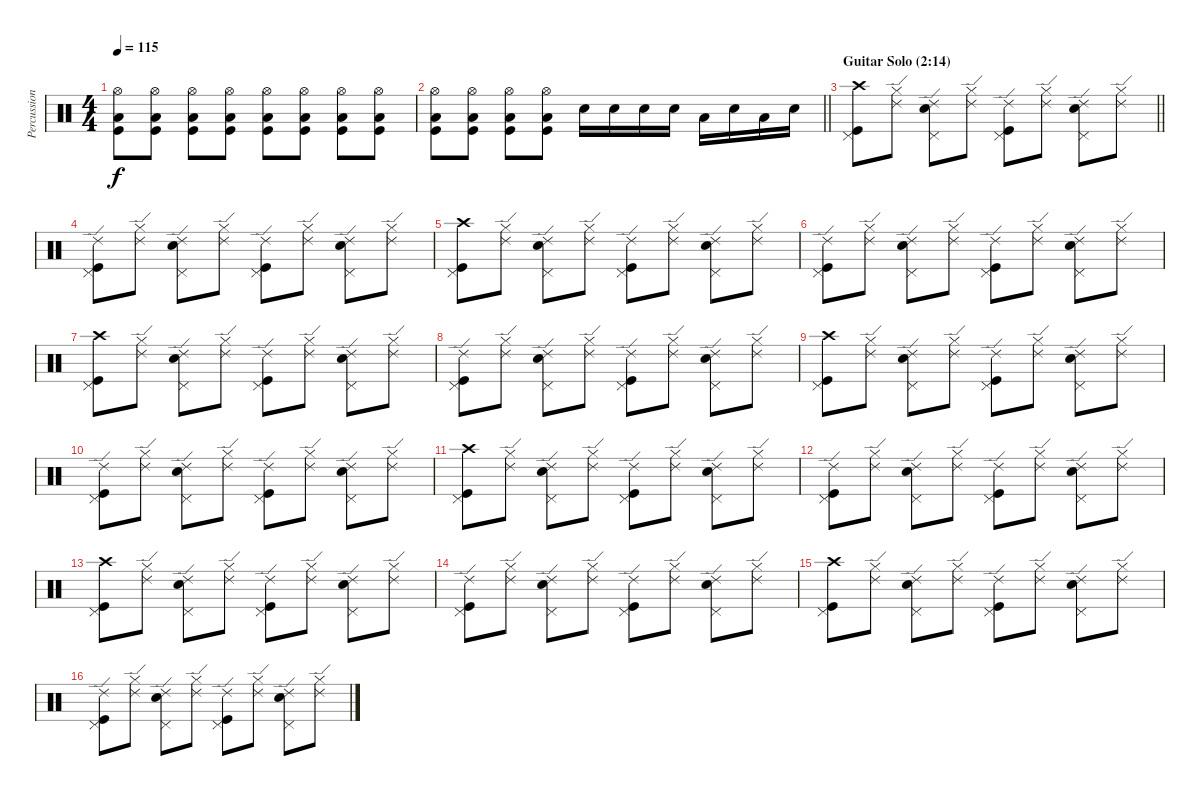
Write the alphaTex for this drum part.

\track ("Percussioni" "Percussion") {instrument percussion}
\staff {score}
\articulation defaults
\ts (4 4)
\tempo 115
\clef neutral
\ks c
("Hi-Hat (open)" "Low Tom (hit)" "Kick (hit)").8{dy f} ("Hi-Hat (open)" "Low Tom (hit)" "Kick (hit)").8 ("Hi-Hat (open)" "Low Tom (hit)" "Kick (hit)").8 ("Hi-Hat (open)" "Low Tom (hit)" "Kick (hit)").8 ("Hi-Hat (open)" "Low Tom (hit)" "Kick (hit)").8 ("Hi-Hat (open)" "Low Tom (hit)" "Kick (hit)").8 ("Hi-Hat (open)" "Low Tom (hit)" "Kick (hit)").8 ("Hi-Hat (open)" "Low Tom (hit)" "Kick (hit)").8 |
\barLineRight lightlight
("Hi-Hat (open)" "Low Tom (hit)" "Kick (hit)").8 ("Hi-Hat (open)" "Low Tom (hit)" "Kick (hit)").8 ("Hi-Hat (open)" "Low Tom (hit)" "Kick (hit)").8 ("Hi-Hat (open)" "Low Tom (hit)" "Kick (hit)").8 "Electric Snare (hit)".16 "Electric Snare (hit)".16 "Electric Snare (hit)".16 "Electric Snare (hit)".16 "Low Tom (hit)".16 "Electric Snare (hit)".16 "Low Tom (hit)".16 "Electric Snare (hit)".16 |
\section ("" "Guitar Solo (2:14)")
\barLineRight lightlight
("Crash high (hit)" "Pedal Hi-Hat (hit)" "Kick (hit)").8 ("Ride (edge) 2" "Hi-Hat (closed)").8 ("Ride (edge) 2" "Pedal Hi-Hat (hit)" "Electric Snare (hit)").8 ("Ride (edge) 2" "Hi-Hat (closed)").8 ("Ride (edge) 2" "Pedal Hi-Hat (hit)" "Kick (hit)").8 ("Ride (edge) 2" "Hi-Hat (closed)").8 ("Ride (edge) 2" "Pedal Hi-Hat (hit)" "Electric Snare (hit)").8 ("Ride (edge) 2" "Hi-Hat (closed)").8 |
("Ride (edge) 2" "Pedal Hi-Hat (hit)" "Kick (hit)").8 ("Ride (edge) 2" "Hi-Hat (closed)").8 ("Ride (edge) 2" "Pedal Hi-Hat (hit)" "Electric Snare (hit)").8 ("Ride (edge) 2" "Hi-Hat (closed)").8 ("Ride (edge) 2" "Pedal Hi-Hat (hit)" "Kick (hit)").8 ("Ride (edge) 2" "Hi-Hat (closed)").8 ("Ride (edge) 2" "Pedal Hi-Hat (hit)" "Electric Snare (hit)").8 ("Ride (edge) 2" "Hi-Hat (closed)").8 |
("Crash high (hit)" "Pedal Hi-Hat (hit)" "Kick (hit)").8 ("Ride (edge) 2" "Hi-Hat (closed)").8 ("Ride (edge) 2" "Pedal Hi-Hat (hit)" "Electric Snare (hit)").8 ("Ride (edge) 2" "Hi-Hat (closed)").8 ("Ride (edge) 2" "Pedal Hi-Hat (hit)" "Kick (hit)").8 ("Ride (edge) 2" "Hi-Hat (closed)").8 ("Ride (edge) 2" "Pedal Hi-Hat (hit)" "Electric Snare (hit)").8 ("Ride (edge) 2" "Hi-Hat (closed)").8 |
("Ride (edge) 2" "Pedal Hi-Hat (hit)" "Kick (hit)").8 ("Ride (edge) 2" "Hi-Hat (closed)").8 ("Ride (edge) 2" "Pedal Hi-Hat (hit)" "Electric Snare (hit)").8 ("Ride (edge) 2" "Hi-Hat (closed)").8 ("Ride (edge) 2" "Pedal Hi-Hat (hit)" "Kick (hit)").8 ("Ride (edge) 2" "Hi-Hat (closed)").8 ("Ride (edge) 2" "Pedal Hi-Hat (hit)" "Electric Snare (hit)").8 ("Ride (edge) 2" "Hi-Hat (closed)").8 |
("Crash high (hit)" "Pedal Hi-Hat (hit)" "Kick (hit)").8 ("Ride (edge) 2" "Hi-Hat (closed)").8 ("Ride (edge) 2" "Pedal Hi-Hat (hit)" "Electric Snare (hit)").8 ("Ride (edge) 2" "Hi-Hat (closed)").8 ("Ride (edge) 2" "Pedal Hi-Hat (hit)" "Kick (hit)").8 ("Ride (edge) 2" "Hi-Hat (closed)").8 ("Ride (edge) 2" "Pedal Hi-Hat (hit)" "Electric Snare (hit)").8 ("Ride (edge) 2" "Hi-Hat (closed)").8 |
("Ride (edge) 2" "Pedal Hi-Hat (hit)" "Kick (hit)").8 ("Ride (edge) 2" "Hi-Hat (closed)").8 ("Ride (edge) 2" "Pedal Hi-Hat (hit)" "Electric Snare (hit)").8 ("Ride (edge) 2" "Hi-Hat (closed)").8 ("Ride (edge) 2" "Pedal Hi-Hat (hit)" "Kick (hit)").8 ("Ride (edge) 2" "Hi-Hat (closed)").8 ("Ride (edge) 2" "Pedal Hi-Hat (hit)" "Electric Snare (hit)").8 ("Ride (edge) 2" "Hi-Hat (closed)").8 |
("Crash high (hit)" "Pedal Hi-Hat (hit)" "Kick (hit)").8 ("Ride (edge) 2" "Hi-Hat (closed)").8 ("Ride (edge) 2" "Pedal Hi-Hat (hit)" "Electric Snare (hit)").8 ("Ride (edge) 2" "Hi-Hat (closed)").8 ("Ride (edge) 2" "Pedal Hi-Hat (hit)" "Kick (hit)").8 ("Ride (edge) 2" "Hi-Hat (closed)").8 ("Ride (edge) 2" "Pedal Hi-Hat (hit)" "Electric Snare (hit)").8 ("Ride (edge) 2" "Hi-Hat (closed)").8 |
("Ride (edge) 2" "Pedal Hi-Hat (hit)" "Kick (hit)").8 ("Ride (edge) 2" "Hi-Hat (closed)").8 ("Ride (edge) 2" "Pedal Hi-Hat (hit)" "Electric Snare (hit)").8 ("Ride (edge) 2" "Hi-Hat (closed)").8 ("Ride (edge) 2" "Pedal Hi-Hat (hit)" "Kick (hit)").8 ("Ride (edge) 2" "Hi-Hat (closed)").8 ("Ride (edge) 2" "Pedal Hi-Hat (hit)" "Electric Snare (hit)").8 ("Ride (edge) 2" "Hi-Hat (closed)").8 |
("Crash high (hit)" "Pedal Hi-Hat (hit)" "Kick (hit)").8 ("Ride (edge) 2" "Hi-Hat (closed)").8 ("Ride (edge) 2" "Pedal Hi-Hat (hit)" "Electric Snare (hit)").8 ("Ride (edge) 2" "Hi-Hat (closed)").8 ("Ride (edge) 2" "Pedal Hi-Hat (hit)" "Kick (hit)").8 ("Ride (edge) 2" "Hi-Hat (closed)").8 ("Ride (edge) 2" "Pedal Hi-Hat (hit)" "Electric Snare (hit)").8 ("Ride (edge) 2" "Hi-Hat (closed)").8 |
("Ride (edge) 2" "Pedal Hi-Hat (hit)" "Kick (hit)").8 ("Ride (edge) 2" "Hi-Hat (closed)").8 ("Ride (edge) 2" "Pedal Hi-Hat (hit)" "Electric Snare (hit)").8 ("Ride (edge) 2" "Hi-Hat (closed)").8 ("Ride (edge) 2" "Pedal Hi-Hat (hit)" "Kick (hit)").8 ("Ride (edge) 2" "Hi-Hat (closed)").8 ("Ride (edge) 2" "Pedal Hi-Hat (hit)" "Electric Snare (hit)").8 ("Ride (edge) 2" "Hi-Hat (closed)").8 |
("Crash high (hit)" "Pedal Hi-Hat (hit)" "Kick (hit)").8 ("Ride (edge) 2" "Hi-Hat (closed)").8 ("Ride (edge) 2" "Pedal Hi-Hat (hit)" "Electric Snare (hit)").8 ("Ride (edge) 2" "Hi-Hat (closed)").8 ("Ride (edge) 2" "Pedal Hi-Hat (hit)" "Kick (hit)").8 ("Ride (edge) 2" "Hi-Hat (closed)").8 ("Ride (edge) 2" "Pedal Hi-Hat (hit)" "Electric Snare (hit)").8 ("Ride (edge) 2" "Hi-Hat (closed)").8 |
("Ride (edge) 2" "Pedal Hi-Hat (hit)" "Kick (hit)").8 ("Ride (edge) 2" "Hi-Hat (closed)").8 ("Ride (edge) 2" "Pedal Hi-Hat (hit)" "Electric Snare (hit)").8 ("Ride (edge) 2" "Hi-Hat (closed)").8 ("Ride (edge) 2" "Pedal Hi-Hat (hit)" "Kick (hit)").8 ("Ride (edge) 2" "Hi-Hat (closed)").8 ("Ride (edge) 2" "Pedal Hi-Hat (hit)" "Electric Snare (hit)").8 ("Ride (edge) 2" "Hi-Hat (closed)").8 |
("Crash high (hit)" "Pedal Hi-Hat (hit)" "Kick (hit)").8 ("Ride (edge) 2" "Hi-Hat (closed)").8 ("Ride (edge) 2" "Pedal Hi-Hat (hit)" "Electric Snare (hit)").8 ("Ride (edge) 2" "Hi-Hat (closed)").8 ("Ride (edge) 2" "Pedal Hi-Hat (hit)" "Kick (hit)").8 ("Ride (edge) 2" "Hi-Hat (closed)").8 ("Ride (edge) 2" "Pedal Hi-Hat (hit)" "Electric Snare (hit)").8 ("Ride (edge) 2" "Hi-Hat (closed)").8 |
("Ride (edge) 2" "Pedal Hi-Hat (hit)" "Kick (hit)").8 ("Ride (edge) 2" "Hi-Hat (closed)").8 ("Ride (edge) 2" "Pedal Hi-Hat (hit)" "Electric Snare (hit)").8 ("Ride (edge) 2" "Hi-Hat (closed)").8 ("Ride (edge) 2" "Pedal Hi-Hat (hit)" "Kick (hit)").8 ("Ride (edge) 2" "Hi-Hat (closed)").8 ("Ride (edge) 2" "Pedal Hi-Hat (hit)" "Electric Snare (hit)").8 ("Ride (edge) 2" "Hi-Hat (closed)").8
